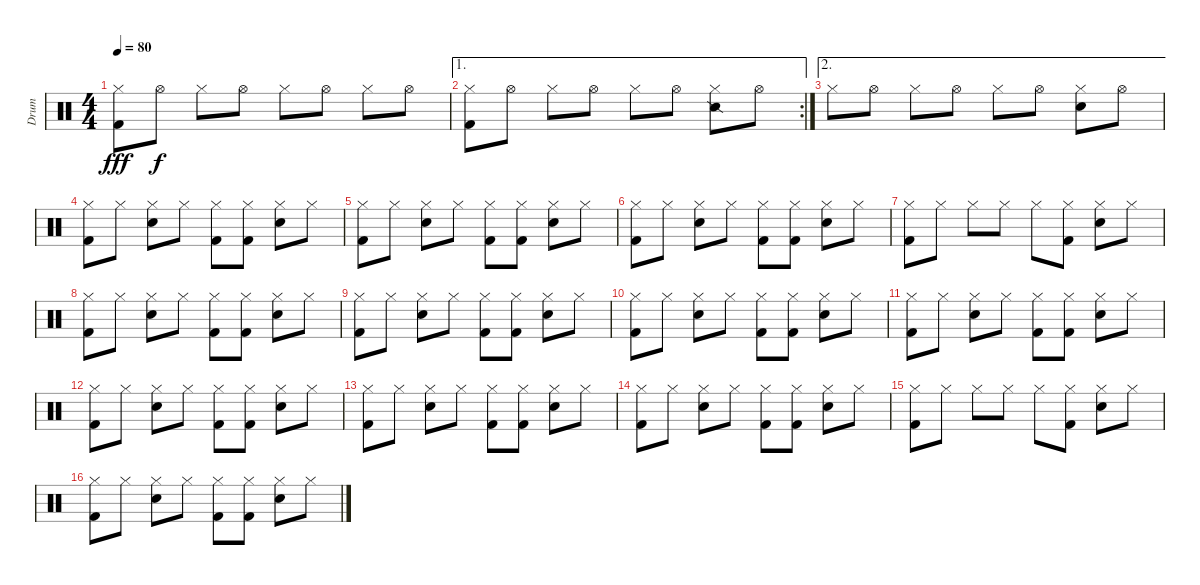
\track ("Drum" "Drum") {instrument percussion}
\staff {score}
\articulation defaults
\ts (4 4)
\tempo 80
\clef neutral
\ks c
("Hi-Hat (closed)" "Kick (hit) 2").8{dy fff} "Hi-Hat (open)".8{dy f} "Hi-Hat (closed)".8 "Hi-Hat (open)".8 "Hi-Hat (closed)".8 "Hi-Hat (open)".8 "Hi-Hat (closed)".8 "Hi-Hat (open)".8 |
\ae 1
\rc 2
("Hi-Hat (closed)" "Kick (hit) 2").8 "Hi-Hat (open)".8 "Hi-Hat (closed)".8 "Hi-Hat (open)".8 "Hi-Hat (closed)".8 "Hi-Hat (open)".8 ("Hi-Hat (closed)" "Snare (side stick) 2").8 "Hi-Hat (open)".8 |
\ae 2 "Hi-Hat (closed)".8 "Hi-Hat (open)".8 "Hi-Hat (closed)".8 "Hi-Hat (open)".8 "Hi-Hat (closed)".8 "Hi-Hat (open)".8
("Hi-Hat (closed)" "Electric Snare (hit)").8 "Hi-Hat (open)".8 |
("Hi-Hat (closed)" "Kick (hit) 2").8 "Hi-Hat (closed)".8 ("Hi-Hat (closed)" "Electric Snare (hit)").8 "Hi-Hat (closed)".8 ("Hi-Hat (closed)" "Kick (hit) 2").8 ("Hi-Hat (closed)" "Kick (hit) 2").8 ("Hi-Hat (closed)" "Electric Snare (hit)").8 "Hi-Hat (closed)".8 |
("Hi-Hat (closed)" "Kick (hit) 2").8 "Hi-Hat (closed)".8 ("Hi-Hat (closed)" "Electric Snare (hit)").8 "Hi-Hat (closed)".8 ("Hi-Hat (closed)" "Kick (hit) 2").8 ("Hi-Hat (closed)" "Kick (hit) 2").8 ("Hi-Hat (closed)" "Electric Snare (hit)").8 "Hi-Hat (closed)".8 |
("Hi-Hat (closed)" "Kick (hit) 2").8 "Hi-Hat (closed)".8 ("Hi-Hat (closed)" "Electric Snare (hit)").8 "Hi-Hat (closed)".8 ("Hi-Hat (closed)" "Kick (hit) 2").8 ("Hi-Hat (closed)" "Kick (hit) 2").8 ("Hi-Hat (closed)" "Electric Snare (hit)").8 "Hi-Hat (closed)".8 |
("Hi-Hat (closed)" "Kick (hit) 2").8 "Hi-Hat (closed)".8 "Hi-Hat (closed)".8 "Hi-Hat (closed)".8 "Hi-Hat (closed)".8 ("Hi-Hat (closed)" "Kick (hit) 2").8 ("Hi-Hat (closed)" "Electric Snare (hit)").8 "Hi-Hat (closed)".8 |
("Hi-Hat (closed)" "Kick (hit) 2").8 "Hi-Hat (closed)".8 ("Hi-Hat (closed)" "Electric Snare (hit)").8 "Hi-Hat (closed)".8 ("Hi-Hat (closed)" "Kick (hit) 2").8 ("Hi-Hat (closed)" "Kick (hit) 2").8 ("Hi-Hat (closed)" "Electric Snare (hit)").8 "Hi-Hat (closed)".8 |
("Hi-Hat (closed)" "Kick (hit) 2").8 "Hi-Hat (closed)".8 ("Hi-Hat (closed)" "Electric Snare (hit)").8 "Hi-Hat (closed)".8 ("Hi-Hat (closed)" "Kick (hit) 2").8 ("Hi-Hat (closed)" "Kick (hit) 2").8 ("Hi-Hat (closed)" "Electric Snare (hit)").8 "Hi-Hat (closed)".8 |
("Hi-Hat (closed)" "Kick (hit) 2").8 "Hi-Hat (closed)".8 ("Hi-Hat (closed)" "Electric Snare (hit)").8 "Hi-Hat (closed)".8 ("Hi-Hat (closed)" "Kick (hit) 2").8 ("Hi-Hat (closed)" "Kick (hit) 2").8 ("Hi-Hat (closed)" "Electric Snare (hit)").8 "Hi-Hat (closed)".8 |
("Hi-Hat (closed)" "Kick (hit) 2").8 "Hi-Hat (closed)".8 ("Hi-Hat (closed)" "Electric Snare (hit)").8 "Hi-Hat (closed)".8 ("Hi-Hat (closed)" "Kick (hit) 2").8 ("Hi-Hat (closed)" "Kick (hit) 2").8 ("Hi-Hat (closed)" "Electric Snare (hit)").8 "Hi-Hat (closed)".8 |
("Hi-Hat (closed)" "Kick (hit) 2").8 "Hi-Hat (closed)".8 ("Hi-Hat (closed)" "Electric Snare (hit)").8 "Hi-Hat (closed)".8 ("Hi-Hat (closed)" "Kick (hit) 2").8 ("Hi-Hat (closed)" "Kick (hit) 2").8 ("Hi-Hat (closed)" "Electric Snare (hit)").8 "Hi-Hat (closed)".8 |
("Hi-Hat (closed)" "Kick (hit) 2").8 "Hi-Hat (closed)".8 ("Hi-Hat (closed)" "Electric Snare (hit)").8 "Hi-Hat (closed)".8 ("Hi-Hat (closed)" "Kick (hit) 2").8 ("Hi-Hat (closed)" "Kick (hit) 2").8 ("Hi-Hat (closed)" "Electric Snare (hit)").8 "Hi-Hat (closed)".8 |
("Hi-Hat (closed)" "Kick (hit) 2").8 "Hi-Hat (closed)".8 ("Hi-Hat (closed)" "Electric Snare (hit)").8 "Hi-Hat (closed)".8 ("Hi-Hat (closed)" "Kick (hit) 2").8 ("Hi-Hat (closed)" "Kick (hit) 2").8 ("Hi-Hat (closed)" "Electric Snare (hit)").8 "Hi-Hat (closed)".8 |
("Hi-Hat (closed)" "Kick (hit) 2").8 "Hi-Hat (closed)".8 "Hi-Hat (closed)".8 "Hi-Hat (closed)".8 "Hi-Hat (closed)".8 ("Hi-Hat (closed)" "Kick (hit) 2").8 ("Hi-Hat (closed)" "Electric Snare (hit)").8 "Hi-Hat (closed)".8 |
("Hi-Hat (closed)" "Kick (hit) 2").8 "Hi-Hat (closed)".8 ("Hi-Hat (closed)" "Electric Snare (hit)").8 "Hi-Hat (closed)".8 ("Hi-Hat (closed)" "Kick (hit) 2").8 ("Hi-Hat (closed)" "Kick (hit) 2").8 ("Hi-Hat (closed)" "Electric Snare (hit)").8 "Hi-Hat (closed)".8
